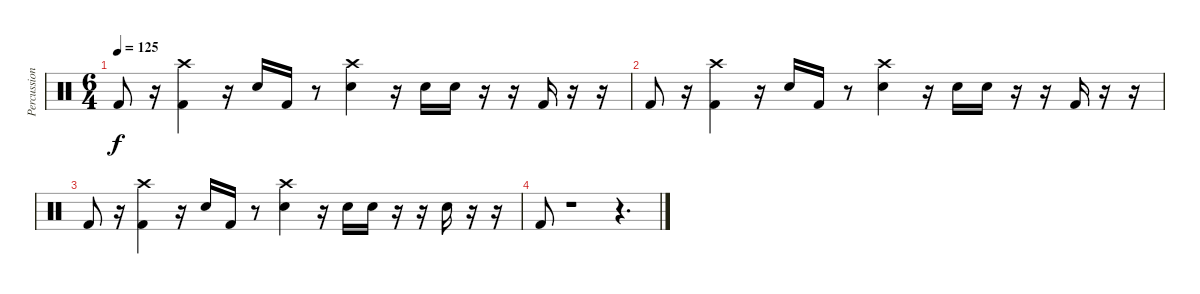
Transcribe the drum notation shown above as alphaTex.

\track ("Percussions" "Percussion") {instrument percussion}
\staff {score}
\articulation defaults
\ts (6 4)
\tempo 125
\clef neutral
\ks c "Kick (hit) 2".8{dy f}
r.16 ("Crash high (hit)" "Kick (hit) 2").4 r.16 "Electric Snare (hit)".16 "Kick (hit) 2".16 r.8 ("Crash high (hit)" "Electric Snare (hit)").4 r.16 "Electric Snare (hit)".16 "Electric Snare (hit)".16 r.16 r.16 "Kick (hit) 2".16 r.16 r.16 |
"Kick (hit) 2".8 r.16 ("Crash high (hit)" "Kick (hit) 2").4 r.16 "Electric Snare (hit)".16 "Kick (hit) 2".16 r.8 ("Crash high (hit)" "Electric Snare (hit)").4 r.16 "Electric Snare (hit)".16 "Electric Snare (hit)".16 r.16 r.16 "Kick (hit) 2".16 r.16 r.16 |
"Kick (hit) 2".8 r.16 ("Crash high (hit)" "Kick (hit) 2").4 r.16 "Electric Snare (hit)".16 "Kick (hit) 2".16 r.8 ("Crash high (hit)" "Electric Snare (hit)").4 r.16 "Electric Snare (hit)".16 "Electric Snare (hit)".16 r.16 r.16 "Electric Snare (hit)".16 r.16 r.16 |
"Kick (hit) 2".8 r.1 r.4{d}
